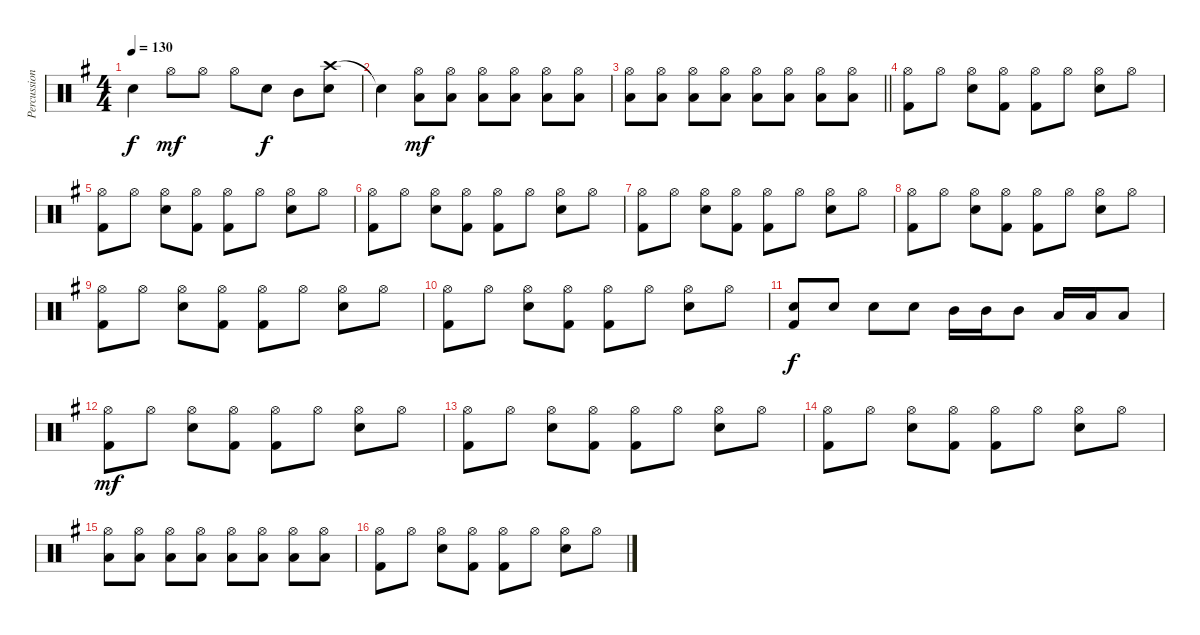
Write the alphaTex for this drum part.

\track ("Percussion" "Percussion") {instrument percussion}
\staff {score}
\articulation defaults
\ts (4 4)
\tempo 130
\clef neutral
\ks g "Snare (hit)"{t}.4{dy f} "Hi-Hat (open)".8{dy mf} "Hi-Hat (open)".8 "Hi-Hat (open)".8 "Snare (hit) 2".8{dy f} "Mid Tom (hit)".8
("Crash high (hit)" "Snare (hit)").8 |
"Snare (hit)"{t}.4 ("Hi-Hat (open)" "Low Floor Tom (hit)").8{dy mf} ("Hi-Hat (open)" "Low Floor Tom (hit)").8 ("Hi-Hat (open)" "Low Floor Tom (hit)").8 ("Hi-Hat (open)" "Low Floor Tom (hit)").8 ("Hi-Hat (open)" "Low Floor Tom (hit)").8 ("Hi-Hat (open)" "Low Floor Tom (hit)").8 |
\barLineRight lightlight
("Hi-Hat (open)" "Low Floor Tom (hit)").8 ("Hi-Hat (open)" "Low Floor Tom (hit)").8 ("Hi-Hat (open)" "Low Floor Tom (hit)").8 ("Hi-Hat (open)" "Low Floor Tom (hit)").8 ("Hi-Hat (open)" "Low Floor Tom (hit)").8 ("Hi-Hat (open)" "Low Floor Tom (hit)").8 ("Hi-Hat (open)" "Low Floor Tom (hit)").8 ("Hi-Hat (open)" "Low Floor Tom (hit)").8 |
("Hi-Hat (open)" "Kick (hit) 2").8 "Hi-Hat (open)".8 ("Hi-Hat (open)" "Snare (hit) 2").8 ("Hi-Hat (open)" "Kick (hit) 2").8 ("Hi-Hat (open)" "Kick (hit) 2").8 "Hi-Hat (open)".8 ("Hi-Hat (open)" "Snare (hit) 2").8 "Hi-Hat (open)".8 |
("Hi-Hat (open)" "Kick (hit) 2").8 "Hi-Hat (open)".8 ("Hi-Hat (open)" "Snare (hit) 2").8 ("Hi-Hat (open)" "Kick (hit) 2").8 ("Hi-Hat (open)" "Kick (hit) 2").8 "Hi-Hat (open)".8 ("Hi-Hat (open)" "Snare (hit) 2").8 "Hi-Hat (open)".8 |
("Hi-Hat (open)" "Kick (hit) 2").8 "Hi-Hat (open)".8 ("Hi-Hat (open)" "Snare (hit) 2").8 ("Hi-Hat (open)" "Kick (hit) 2").8 ("Hi-Hat (open)" "Kick (hit) 2").8 "Hi-Hat (open)".8 ("Hi-Hat (open)" "Snare (hit) 2").8 "Hi-Hat (open)".8 |
("Hi-Hat (open)" "Kick (hit) 2").8 "Hi-Hat (open)".8 ("Hi-Hat (open)" "Snare (hit) 2").8 ("Hi-Hat (open)" "Kick (hit) 2").8 ("Hi-Hat (open)" "Kick (hit) 2").8 "Hi-Hat (open)".8 ("Hi-Hat (open)" "Snare (hit) 2").8 "Hi-Hat (open)".8 |
("Hi-Hat (open)" "Kick (hit) 2").8 "Hi-Hat (open)".8 ("Hi-Hat (open)" "Snare (hit) 2").8 ("Hi-Hat (open)" "Kick (hit) 2").8 ("Hi-Hat (open)" "Kick (hit) 2").8 "Hi-Hat (open)".8 ("Hi-Hat (open)" "Snare (hit) 2").8 "Hi-Hat (open)".8 |
("Hi-Hat (open)" "Kick (hit) 2").8 "Hi-Hat (open)".8 ("Hi-Hat (open)" "Snare (hit) 2").8 ("Hi-Hat (open)" "Kick (hit) 2").8 ("Hi-Hat (open)" "Kick (hit) 2").8 "Hi-Hat (open)".8 ("Hi-Hat (open)" "Snare (hit) 2").8 "Hi-Hat (open)".8 |
("Hi-Hat (open)" "Kick (hit) 2").8 "Hi-Hat (open)".8 ("Hi-Hat (open)" "Snare (hit) 2").8 ("Hi-Hat (open)" "Kick (hit) 2").8 ("Hi-Hat (open)" "Kick (hit) 2").8 "Hi-Hat (open)".8 ("Hi-Hat (open)" "Snare (hit) 2").8 "Hi-Hat (open)".8 |
("Snare (hit) 2" "Kick (hit) 2").8{dy f} "Snare (hit) 2".8 "Snare (hit) 2".8 "Snare (hit) 2".8 "Mid Tom (hit)".16 "Mid Tom (hit)".16 "Mid Tom (hit)".8 "Low Tom (hit)".16 "Low Tom (hit)".16 "Low Tom (hit)".8 |
("Hi-Hat (open)" "Kick (hit) 2").8{dy mf} "Hi-Hat (open)".8 ("Hi-Hat (open)" "Snare (hit) 2").8 ("Hi-Hat (open)" "Kick (hit) 2").8 ("Hi-Hat (open)" "Kick (hit) 2").8 "Hi-Hat (open)".8 ("Hi-Hat (open)" "Snare (hit) 2").8 "Hi-Hat (open)".8 |
("Hi-Hat (open)" "Kick (hit) 2").8 "Hi-Hat (open)".8 ("Hi-Hat (open)" "Snare (hit) 2").8 ("Hi-Hat (open)" "Kick (hit) 2").8 ("Hi-Hat (open)" "Kick (hit) 2").8 "Hi-Hat (open)".8 ("Hi-Hat (open)" "Snare (hit) 2").8 "Hi-Hat (open)".8 |
("Hi-Hat (open)" "Kick (hit) 2").8 "Hi-Hat (open)".8 ("Hi-Hat (open)" "Snare (hit) 2").8 ("Hi-Hat (open)" "Kick (hit) 2").8 ("Hi-Hat (open)" "Kick (hit) 2").8 "Hi-Hat (open)".8 ("Hi-Hat (open)" "Snare (hit) 2").8 "Hi-Hat (open)".8 |
("Hi-Hat (open)" "Low Floor Tom (hit)").8 ("Hi-Hat (open)" "Low Floor Tom (hit)").8 ("Hi-Hat (open)" "Low Floor Tom (hit)").8 ("Hi-Hat (open)" "Low Floor Tom (hit)").8 ("Hi-Hat (open)" "Low Floor Tom (hit)").8 ("Hi-Hat (open)" "Low Floor Tom (hit)").8 ("Hi-Hat (open)" "Low Floor Tom (hit)").8 ("Hi-Hat (open)" "Low Floor Tom (hit)").8 |
("Hi-Hat (open)" "Kick (hit) 2").8 "Hi-Hat (open)".8 ("Hi-Hat (open)" "Snare (hit) 2").8 ("Hi-Hat (open)" "Kick (hit) 2").8 ("Hi-Hat (open)" "Kick (hit) 2").8 "Hi-Hat (open)".8 ("Hi-Hat (open)" "Snare (hit) 2").8 "Hi-Hat (open)".8
